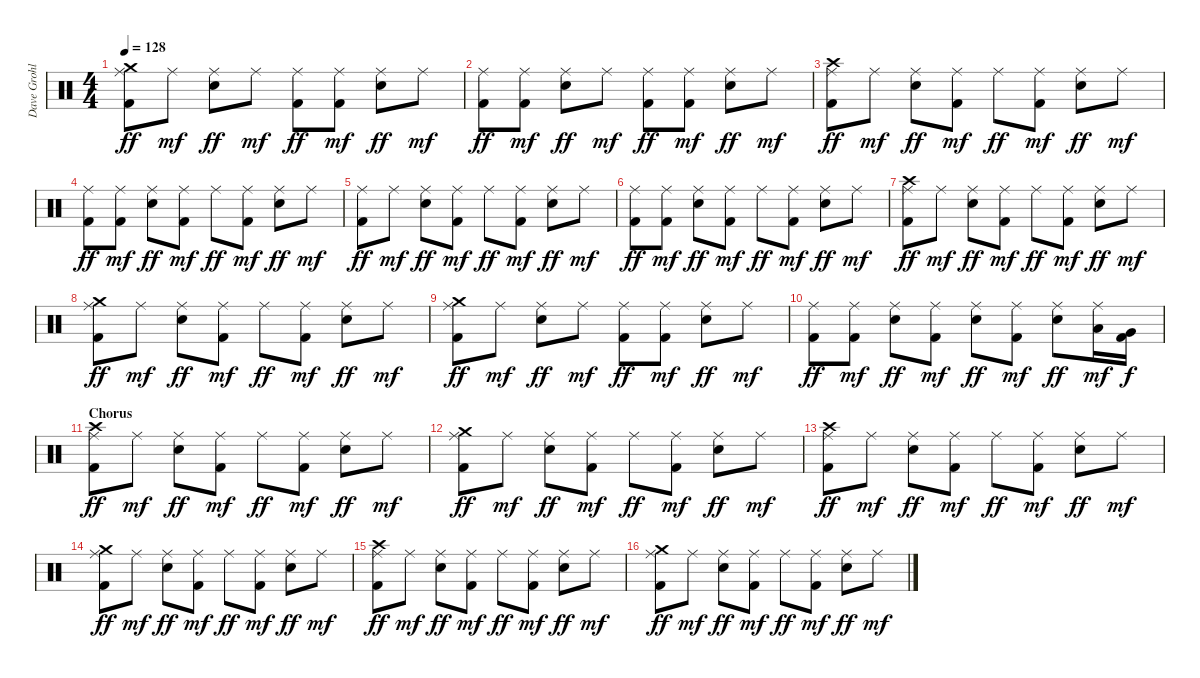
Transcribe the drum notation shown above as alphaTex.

\track ("Dave Grohl" "Dave Grohl") {instrument percussion}
\staff {score}
\articulation defaults
\ts (4 4)
\tempo 128
\clef neutral
\ks c
("Crash medium (hit)" "Ride (middle)" "Kick (hit) 2").8{dy ff} "Ride (middle)".8{dy mf} ("Ride (middle)" "Snare (hit) 2").8{dy ff} "Ride (middle)".8{dy mf} ("Ride (middle)" "Kick (hit) 2").8{dy ff} ("Ride (middle)" "Kick (hit) 2").8{dy mf} ("Ride (middle)" "Snare (hit) 2").8{dy ff} "Ride (middle)".8{dy mf} |
("Ride (middle)" "Kick (hit) 2").8{dy ff} ("Ride (middle)" "Kick (hit) 2").8{dy mf} ("Ride (middle)" "Snare (hit) 2").8{dy ff} "Ride (middle)".8{dy mf} ("Ride (middle)" "Kick (hit) 2").8{dy ff} ("Ride (middle)" "Kick (hit) 2").8{dy mf} ("Ride (middle)" "Snare (hit) 2").8{dy ff} "Ride (middle)".8{dy mf} |
("Crash high (hit)" "Ride (middle)" "Kick (hit) 2").8{dy ff} "Ride (middle)".8{dy mf} ("Ride (middle)" "Snare (hit) 2").8{dy ff} ("Ride (middle)" "Kick (hit) 2").8{dy mf} "Ride (middle)".8{dy ff} ("Ride (middle)" "Kick (hit) 2").8{dy mf} ("Ride (middle)" "Snare (hit) 2").8{dy ff} "Ride (middle)".8{dy mf} |
("Ride (middle)" "Kick (hit) 2").8{dy ff} ("Ride (middle)" "Kick (hit) 2").8{dy mf} ("Ride (middle)" "Snare (hit) 2").8{dy ff} ("Ride (middle)" "Kick (hit) 2").8{dy mf} "Ride (middle)".8{dy ff} ("Ride (middle)" "Kick (hit) 2").8{dy mf} ("Ride (middle)" "Snare (hit) 2").8{dy ff} "Ride (middle)".8{dy mf} |
("Ride (middle)" "Kick (hit) 2").8{dy ff} "Ride (middle)".8{dy mf} ("Ride (middle)" "Snare (hit) 2").8{dy ff} ("Ride (middle)" "Kick (hit) 2").8{dy mf} "Ride (middle)".8{dy ff} ("Ride (middle)" "Kick (hit) 2").8{dy mf} ("Ride (middle)" "Snare (hit) 2").8{dy ff} "Ride (middle)".8{dy mf} |
("Ride (middle)" "Kick (hit) 2").8{dy ff} ("Ride (middle)" "Kick (hit) 2").8{dy mf} ("Ride (middle)" "Snare (hit) 2").8{dy ff} ("Ride (middle)" "Kick (hit) 2").8{dy mf} "Ride (middle)".8{dy ff} ("Ride (middle)" "Kick (hit) 2").8{dy mf} ("Ride (middle)" "Snare (hit) 2").8{dy ff} "Ride (middle)".8{dy mf} |
("Crash high (hit)" "Ride (middle)" "Kick (hit) 2").8{dy ff} "Ride (middle)".8{dy mf} ("Ride (middle)" "Snare (hit) 2").8{dy ff} ("Ride (middle)" "Kick (hit) 2").8{dy mf} "Ride (middle)".8{dy ff} ("Ride (middle)" "Kick (hit) 2").8{dy mf} ("Ride (middle)" "Snare (hit) 2").8{dy ff} "Ride (middle)".8{dy mf} |
("Crash medium (hit)" "Ride (middle)" "Kick (hit) 2").8{dy ff} "Ride (middle)".8{dy mf} ("Ride (middle)" "Snare (hit) 2").8{dy ff} ("Ride (middle)" "Kick (hit) 2").8{dy mf} "Ride (middle)".8{dy ff} ("Ride (middle)" "Kick (hit) 2").8{dy mf} ("Ride (middle)" "Snare (hit) 2").8{dy ff} "Ride (middle)".8{dy mf} |
("Crash medium (hit)" "Ride (middle)" "Kick (hit) 2").8{dy ff} "Ride (middle)".8{dy mf} ("Ride (middle)" "Snare (hit) 2").8{dy ff} "Ride (middle)".8{dy mf} ("Ride (middle)" "Kick (hit) 2").8{dy ff} ("Ride (middle)" "Kick (hit) 2").8{dy mf} ("Ride (middle)" "Snare (hit) 2").8{dy ff} "Ride (middle)".8{dy mf} |
("Ride (middle)" "Kick (hit) 2").8{dy ff} ("Ride (middle)" "Kick (hit) 2").8{dy mf} ("Ride (middle)" "Snare (hit) 2").8{dy ff} ("Ride (middle)" "Kick (hit) 2").8{dy mf} ("Ride (middle)" "Snare (hit) 2").8{dy ff} ("Ride (middle)" "Kick (hit) 2").8{dy mf} ("Ride (middle)" "Snare (hit) 2").8{dy ff} ("Ride (middle)" "Low Tom (hit)").16{dy mf} ("Very Low Tom (hit)" "Kick (hit) 2").16{dy f} |
\section ("" "Chorus")
("Crash high (hit)" "Ride (middle)" "Kick (hit) 2").8{dy ff} "Ride (middle)".8{dy mf} ("Ride (middle)" "Snare (hit) 2").8{dy ff} ("Ride (middle)" "Kick (hit) 2").8{dy mf} "Ride (middle)".8{dy ff} ("Ride (middle)" "Kick (hit) 2").8{dy mf} ("Ride (middle)" "Snare (hit) 2").8{dy ff} "Ride (middle)".8{dy mf} |
("Crash medium (hit)" "Ride (middle)" "Kick (hit) 2").8{dy ff} "Ride (middle)".8{dy mf} ("Ride (middle)" "Snare (hit) 2").8{dy ff} ("Ride (middle)" "Kick (hit) 2").8{dy mf} "Ride (middle)".8{dy ff} ("Ride (middle)" "Kick (hit) 2").8{dy mf} ("Ride (middle)" "Snare (hit) 2").8{dy ff} "Ride (middle)".8{dy mf} |
("Crash high (hit)" "Ride (middle)" "Kick (hit) 2").8{dy ff} "Ride (middle)".8{dy mf} ("Ride (middle)" "Snare (hit) 2").8{dy ff} ("Ride (middle)" "Kick (hit) 2").8{dy mf} "Ride (middle)".8{dy ff} ("Ride (middle)" "Kick (hit) 2").8{dy mf} ("Ride (middle)" "Snare (hit) 2").8{dy ff} "Ride (middle)".8{dy mf} |
("Crash medium (hit)" "Ride (middle)" "Kick (hit) 2").8{dy ff} "Ride (middle)".8{dy mf} ("Ride (middle)" "Snare (hit) 2").8{dy ff} ("Ride (middle)" "Kick (hit) 2").8{dy mf} "Ride (middle)".8{dy ff} ("Ride (middle)" "Kick (hit) 2").8{dy mf} ("Ride (middle)" "Snare (hit) 2").8{dy ff} "Ride (middle)".8{dy mf} |
("Crash high (hit)" "Ride (middle)" "Kick (hit) 2").8{dy ff} "Ride (middle)".8{dy mf} ("Ride (middle)" "Snare (hit) 2").8{dy ff} ("Ride (middle)" "Kick (hit) 2").8{dy mf} "Ride (middle)".8{dy ff} ("Ride (middle)" "Kick (hit) 2").8{dy mf} ("Ride (middle)" "Snare (hit) 2").8{dy ff} "Ride (middle)".8{dy mf} |
("Crash medium (hit)" "Ride (middle)" "Kick (hit) 2").8{dy ff} "Ride (middle)".8{dy mf} ("Ride (middle)" "Snare (hit) 2").8{dy ff} ("Ride (middle)" "Kick (hit) 2").8{dy mf} "Ride (middle)".8{dy ff} ("Ride (middle)" "Kick (hit) 2").8{dy mf} ("Ride (middle)" "Snare (hit) 2").8{dy ff} "Ride (middle)".8{dy mf}
